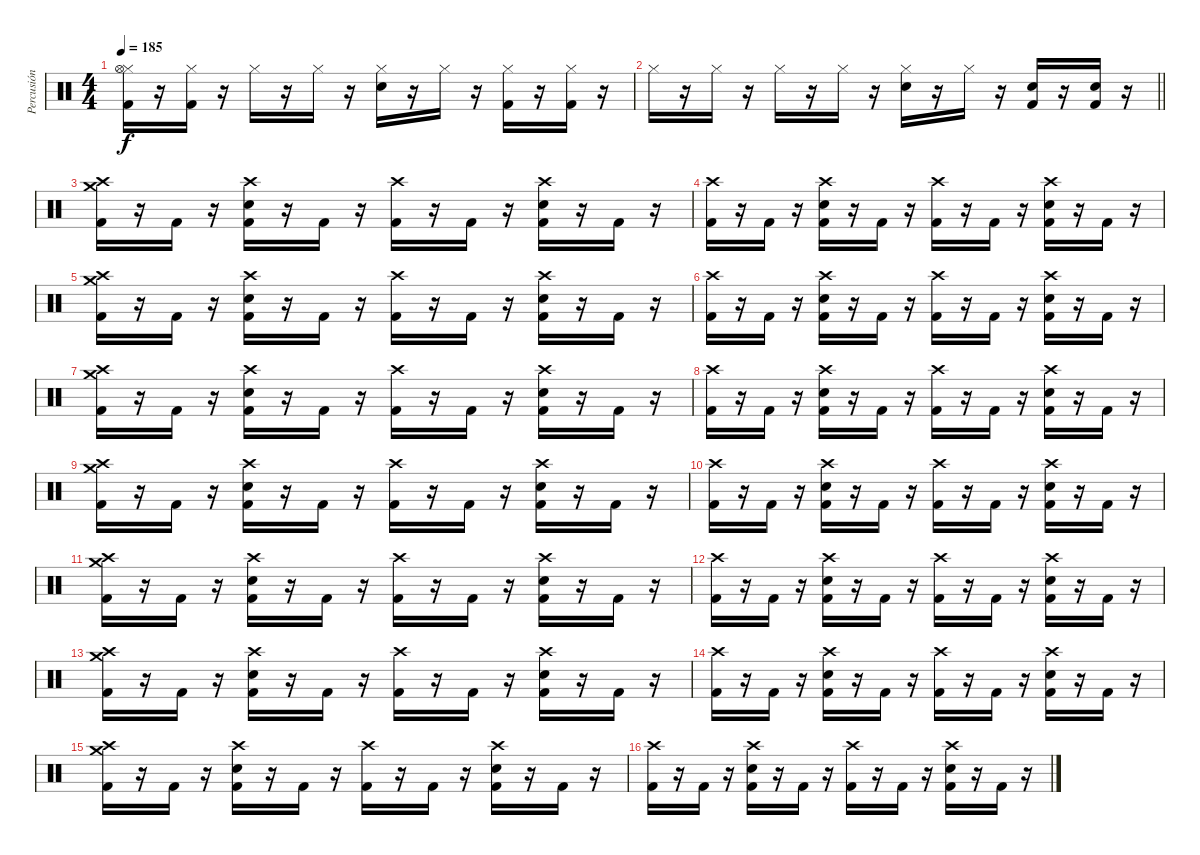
\track ("Percusión" "Percusión") {instrument percussion}
\staff {score}
\articulation defaults
\ts (4 4)
\tempo 185
\clef neutral
\ks c
("Hi-Hat (closed)" "Hi-Hat (open)" "Kick (hit) 2").16{dy f} r.16 ("Hi-Hat (closed)" "Kick (hit) 2").16 r.16 "Hi-Hat (closed)".16 r.16 "Hi-Hat (closed)".16 r.16 ("Hi-Hat (closed)" "Electric Snare (hit)").16 r.16 "Hi-Hat (closed)".16 r.16 ("Hi-Hat (closed)" "Kick (hit) 2").16 r.16 ("Hi-Hat (closed)" "Kick (hit) 2").16 r.16 |
\barLineRight lightlight "Hi-Hat (closed)".16
r.16 "Hi-Hat (closed)".16 r.16 "Hi-Hat (closed)".16 r.16 "Hi-Hat (closed)".16 r.16 ("Hi-Hat (closed)" "Electric Snare (hit)").16 r.16 "Hi-Hat (closed)".16 r.16 ("Electric Snare (hit)" "Kick (hit) 2").16 r.16 ("Electric Snare (hit)" "Kick (hit) 2").16 r.16 |
("Crash high (hit)" "Crash medium (hit)" "Kick (hit) 2").16 r.16 "Kick (hit) 2".16 r.16 ("Crash high (hit)" "Electric Snare (hit)" "Kick (hit) 2").16 r.16 "Kick (hit) 2".16 r.16 ("Crash high (hit)" "Kick (hit) 2").16 r.16 "Kick (hit) 2".16 r.16 ("Crash high (hit)" "Electric Snare (hit)" "Kick (hit) 2").16 r.16 "Kick (hit) 2".16 r.16 |
("Crash high (hit)" "Kick (hit) 2").16 r.16 "Kick (hit) 2".16 r.16 ("Crash high (hit)" "Electric Snare (hit)" "Kick (hit) 2").16 r.16 "Kick (hit) 2".16 r.16 ("Crash high (hit)" "Kick (hit) 2").16 r.16 "Kick (hit) 2".16 r.16 ("Crash high (hit)" "Electric Snare (hit)" "Kick (hit) 2").16 r.16 "Kick (hit) 2".16 r.16 |
("Crash high (hit)" "Crash medium (hit)" "Kick (hit) 2").16 r.16 "Kick (hit) 2".16 r.16 ("Crash high (hit)" "Electric Snare (hit)" "Kick (hit) 2").16 r.16 "Kick (hit) 2".16 r.16 ("Crash high (hit)" "Kick (hit) 2").16 r.16 "Kick (hit) 2".16 r.16 ("Crash high (hit)" "Electric Snare (hit)" "Kick (hit) 2").16 r.16 "Kick (hit) 2".16 r.16 |
("Crash high (hit)" "Kick (hit) 2").16 r.16 "Kick (hit) 2".16 r.16 ("Crash high (hit)" "Electric Snare (hit)" "Kick (hit) 2").16 r.16 "Kick (hit) 2".16 r.16 ("Crash high (hit)" "Kick (hit) 2").16 r.16 "Kick (hit) 2".16 r.16 ("Crash high (hit)" "Electric Snare (hit)" "Kick (hit) 2").16 r.16 "Kick (hit) 2".16 r.16 |
("Crash high (hit)" "Crash medium (hit)" "Kick (hit) 2").16 r.16 "Kick (hit) 2".16 r.16 ("Crash high (hit)" "Electric Snare (hit)" "Kick (hit) 2").16 r.16 "Kick (hit) 2".16 r.16 ("Crash high (hit)" "Kick (hit) 2").16 r.16 "Kick (hit) 2".16 r.16 ("Crash high (hit)" "Electric Snare (hit)" "Kick (hit) 2").16 r.16 "Kick (hit) 2".16 r.16 |
("Crash high (hit)" "Kick (hit) 2").16 r.16 "Kick (hit) 2".16 r.16 ("Crash high (hit)" "Electric Snare (hit)" "Kick (hit) 2").16 r.16 "Kick (hit) 2".16 r.16 ("Crash high (hit)" "Kick (hit) 2").16 r.16 "Kick (hit) 2".16 r.16 ("Crash high (hit)" "Electric Snare (hit)" "Kick (hit) 2").16 r.16 "Kick (hit) 2".16 r.16 |
("Crash high (hit)" "Crash medium (hit)" "Kick (hit) 2").16 r.16 "Kick (hit) 2".16 r.16 ("Crash high (hit)" "Electric Snare (hit)" "Kick (hit) 2").16 r.16 "Kick (hit) 2".16 r.16 ("Crash high (hit)" "Kick (hit) 2").16 r.16 "Kick (hit) 2".16 r.16 ("Crash high (hit)" "Electric Snare (hit)" "Kick (hit) 2").16 r.16 "Kick (hit) 2".16 r.16 |
("Crash high (hit)" "Kick (hit) 2").16 r.16 "Kick (hit) 2".16 r.16 ("Crash high (hit)" "Electric Snare (hit)" "Kick (hit) 2").16 r.16 "Kick (hit) 2".16 r.16 ("Crash high (hit)" "Kick (hit) 2").16 r.16 "Kick (hit) 2".16 r.16 ("Crash high (hit)" "Electric Snare (hit)" "Kick (hit) 2").16 r.16 "Kick (hit) 2".16 r.16 |
("Crash high (hit)" "Crash medium (hit)" "Kick (hit) 2").16 r.16 "Kick (hit) 2".16 r.16 ("Crash high (hit)" "Electric Snare (hit)" "Kick (hit) 2").16 r.16 "Kick (hit) 2".16 r.16 ("Crash high (hit)" "Kick (hit) 2").16 r.16 "Kick (hit) 2".16 r.16 ("Crash high (hit)" "Electric Snare (hit)" "Kick (hit) 2").16 r.16 "Kick (hit) 2".16 r.16 |
("Crash high (hit)" "Kick (hit) 2").16 r.16 "Kick (hit) 2".16 r.16 ("Crash high (hit)" "Electric Snare (hit)" "Kick (hit) 2").16 r.16 "Kick (hit) 2".16 r.16 ("Crash high (hit)" "Kick (hit) 2").16 r.16 "Kick (hit) 2".16 r.16 ("Crash high (hit)" "Electric Snare (hit)" "Kick (hit) 2").16 r.16 "Kick (hit) 2".16 r.16 |
("Crash high (hit)" "Crash medium (hit)" "Kick (hit) 2").16 r.16 "Kick (hit) 2".16 r.16 ("Crash high (hit)" "Electric Snare (hit)" "Kick (hit) 2").16 r.16 "Kick (hit) 2".16 r.16 ("Crash high (hit)" "Kick (hit) 2").16 r.16 "Kick (hit) 2".16 r.16 ("Crash high (hit)" "Electric Snare (hit)" "Kick (hit) 2").16 r.16 "Kick (hit) 2".16 r.16 |
("Crash high (hit)" "Kick (hit) 2").16 r.16 "Kick (hit) 2".16 r.16 ("Crash high (hit)" "Electric Snare (hit)" "Kick (hit) 2").16 r.16 "Kick (hit) 2".16 r.16 ("Crash high (hit)" "Kick (hit) 2").16 r.16 "Kick (hit) 2".16 r.16 ("Crash high (hit)" "Electric Snare (hit)" "Kick (hit) 2").16 r.16 "Kick (hit) 2".16 r.16 |
("Crash high (hit)" "Crash medium (hit)" "Kick (hit) 2").16 r.16 "Kick (hit) 2".16 r.16 ("Crash high (hit)" "Electric Snare (hit)" "Kick (hit) 2").16 r.16 "Kick (hit) 2".16 r.16 ("Crash high (hit)" "Kick (hit) 2").16 r.16 "Kick (hit) 2".16 r.16 ("Crash high (hit)" "Electric Snare (hit)" "Kick (hit) 2").16 r.16 "Kick (hit) 2".16 r.16 |
("Crash high (hit)" "Kick (hit) 2").16 r.16 "Kick (hit) 2".16 r.16 ("Crash high (hit)" "Electric Snare (hit)" "Kick (hit) 2").16 r.16 "Kick (hit) 2".16 r.16 ("Crash high (hit)" "Kick (hit) 2").16 r.16 "Kick (hit) 2".16 r.16 ("Crash high (hit)" "Electric Snare (hit)" "Kick (hit) 2").16 r.16 "Kick (hit) 2".16 r.16
